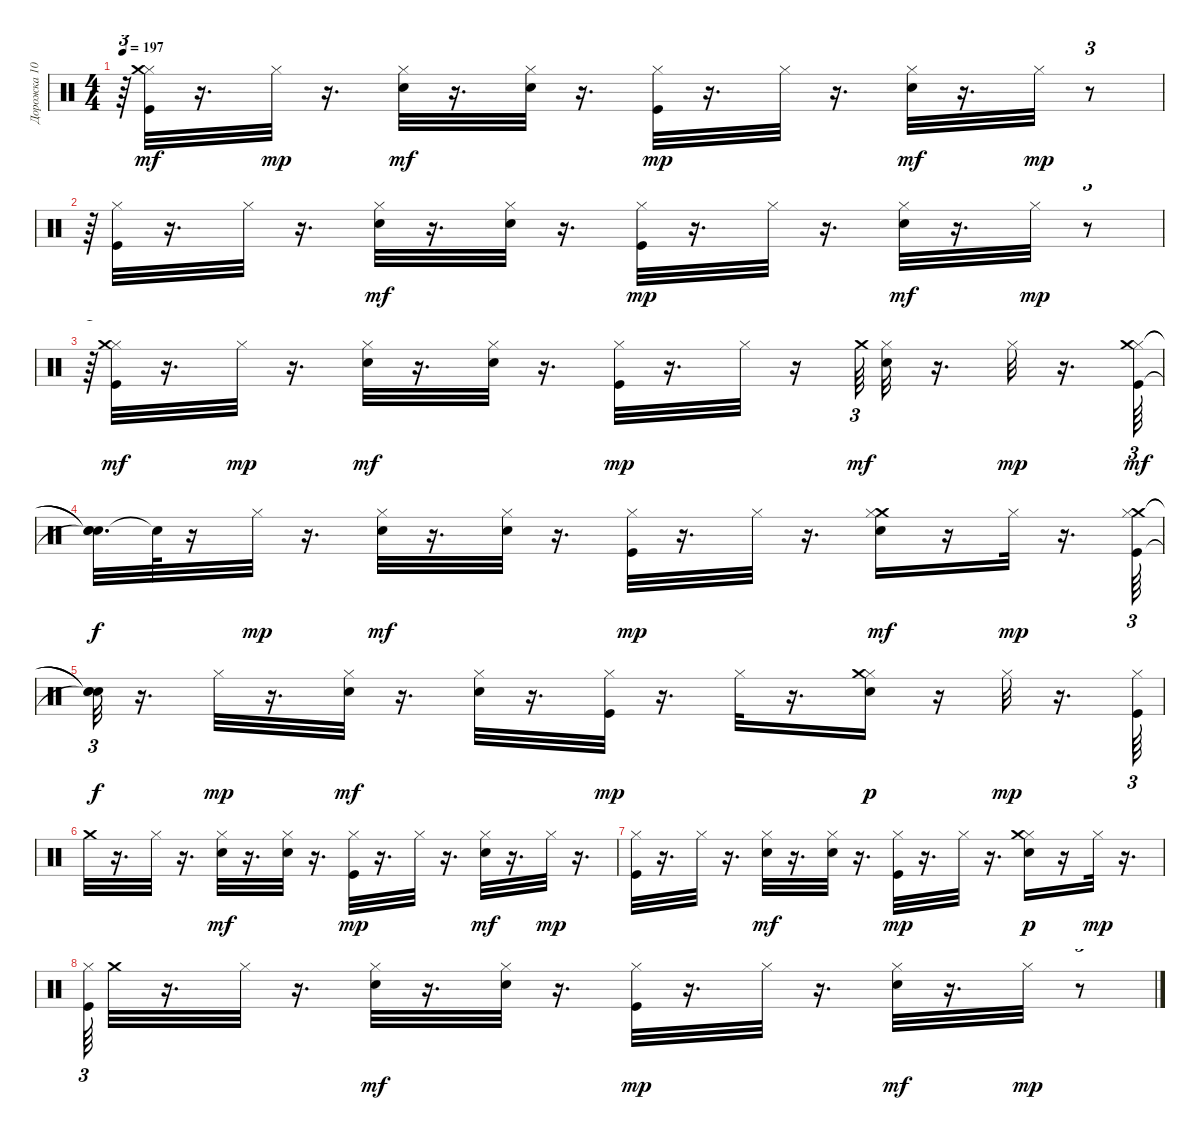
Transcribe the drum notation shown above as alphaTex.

\track ("Дорожка 10" "Дорожка 10") {instrument percussion}
\staff {score}
\articulation defaults
\ts (4 4)
\tempo 197
\clef neutral
\ks c
r.64{tu (3 2) dy mp} ("Hi-Hat (closed)" "Kick (hit)" "Crash medium (hit)").32{dy mf} r.16{d} "Hi-Hat (closed)".32{dy mp} r.16{d} ("Hi-Hat (closed)" "Electric Snare (hit)").32{dy mf} r.16{d} ("Hi-Hat (closed)" "Electric Snare (hit)").32 r.16{d} ("Hi-Hat (closed)" "Kick (hit)").32{dy mp} r.16{d} "Hi-Hat (closed)".32 r.16{d} ("Hi-Hat (closed)" "Electric Snare (hit)").32{dy mf} r.16{d} "Hi-Hat (closed)".32{dy mp} r.8{tu (3 2)} |
r.64{tu (3 2)} ("Hi-Hat (closed)" "Kick (hit)").32 r.16{d} "Hi-Hat (closed)".32 r.16{d} ("Hi-Hat (closed)" "Electric Snare (hit)").32{dy mf} r.16{d} ("Hi-Hat (closed)" "Electric Snare (hit)").32 r.16{d} ("Hi-Hat (closed)" "Kick (hit)").32{dy mp} r.16{d} "Hi-Hat (closed)".32 r.16{d} ("Hi-Hat (closed)" "Electric Snare (hit)").32{dy mf} r.16{d} "Hi-Hat (closed)".32{dy mp} r.8{tu (3 2)} |
r.64{tu (3 2)} ("Hi-Hat (closed)" "Kick (hit)" "Crash medium (hit)").32{dy mf} r.16{d} "Hi-Hat (closed)".32{dy mp} r.16{d} ("Hi-Hat (closed)" "Electric Snare (hit)").32{dy mf} r.16{d} ("Hi-Hat (closed)" "Electric Snare (hit)").32 r.16{d} ("Hi-Hat (closed)" "Kick (hit)").32{dy mp} r.16{d} "Hi-Hat (closed)".32 r.16 "Crash medium (hit)".64{tu (3 2) dy mf} ("Hi-Hat (closed)" "Electric Snare (hit)").32 r.16{d} "Hi-Hat (closed)".32{dy mp} r.16{d} ("Hi-Hat (closed)" "Kick (hit)" "Crash medium (hit)").64{tu (3 2) dy mf} |
("Snare (hit)"{t} "Snare (hit)"{t} "Snare (hit)"{t}).32{d dy f} "Snare (hit)"{t}.64 r.16 "Hi-Hat (closed)".32{dy mp} r.16{d} ("Hi-Hat (closed)" "Electric Snare (hit)").32{dy mf} r.16{d} ("Hi-Hat (closed)" "Electric Snare (hit)").32 r.16{d} ("Hi-Hat (closed)" "Kick (hit)").32{dy mp} r.16{d} "Hi-Hat (closed)".32 r.16{d} ("Crash medium (hit)" "Hi-Hat (closed)" "Electric Snare (hit)").16{dy mf} r.16 "Hi-Hat (closed)".32{dy mp} r.16{d} ("Crash medium (hit)" "Hi-Hat (closed)" "Kick (hit)").64{tu (3 2)} |
("Snare (hit)"{t} "Snare (hit)"{t} "Snare (hit)"{t}).32{tu (3 2) dy f} r.16{d} "Hi-Hat (closed)".32{dy mp} r.16{d} ("Hi-Hat (closed)" "Electric Snare (hit)").32{dy mf} r.16{d} ("Hi-Hat (closed)" "Electric Snare (hit)").32 r.16{d} ("Hi-Hat (closed)" "Kick (hit)").32{dy mp} r.16{d} "Hi-Hat (closed)".32 r.16{d} ("Hi-Hat (closed)" "Electric Snare (hit)" "Crash medium (hit)").16{dy p} r.16 "Hi-Hat (closed)".32{dy mp} r.16{d} ("Hi-Hat (closed)" "Kick (hit)").64{tu (3 2)} |
"Crash medium (hit)".32 r.16{d} "Hi-Hat (closed)".32 r.16{d} ("Hi-Hat (closed)" "Electric Snare (hit)").32{dy mf} r.16{d} ("Hi-Hat (closed)" "Electric Snare (hit)").32 r.16{d} ("Hi-Hat (closed)" "Kick (hit)").32{dy mp} r.16{d} "Hi-Hat (closed)".32 r.16{d} ("Hi-Hat (closed)" "Electric Snare (hit)").32{dy mf} r.16{d} "Hi-Hat (closed)".32{dy mp} r.16{d} |
("Hi-Hat (closed)" "Kick (hit)").32 r.16{d} "Hi-Hat (closed)".32 r.16{d} ("Hi-Hat (closed)" "Electric Snare (hit)").32{dy mf} r.16{d} ("Hi-Hat (closed)" "Electric Snare (hit)").32 r.16{d} ("Hi-Hat (closed)" "Kick (hit)").32{dy mp} r.16{d} "Hi-Hat (closed)".32 r.16{d} ("Hi-Hat (closed)" "Electric Snare (hit)" "Crash medium (hit)").16{dy p} r.16 "Hi-Hat (closed)".32{dy mp} r.16{d} |
("Hi-Hat (closed)" "Kick (hit)").64{tu (3 2)} "Crash medium (hit)".32 r.16{d} "Hi-Hat (closed)".32 r.16{d} ("Hi-Hat (closed)" "Electric Snare (hit)").32{dy mf} r.16{d} ("Hi-Hat (closed)" "Electric Snare (hit)").32 r.16{d} ("Hi-Hat (closed)" "Kick (hit)").32{dy mp} r.16{d} "Hi-Hat (closed)".32 r.16{d} ("Hi-Hat (closed)" "Electric Snare (hit)").32{dy mf} r.16{d} "Hi-Hat (closed)".32{dy mp} r.8{tu (3 2)}
